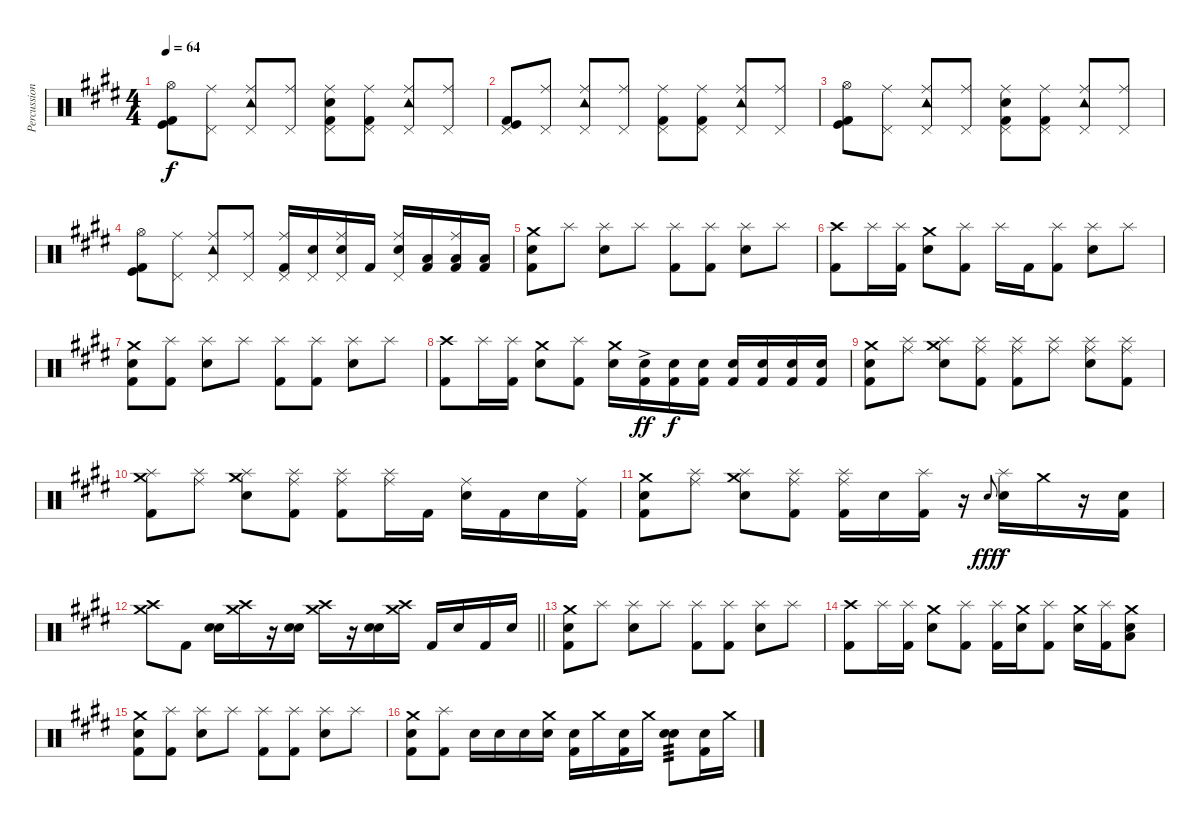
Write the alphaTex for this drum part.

\track ("Percussion" "Percussion") {instrument percussion}
\staff {score}
\articulation defaults
\ts (4 4)
\tempo 64
\clef neutral
\ks e
("Hi-Hat (open)" "Kick (hit)" "Kick (hit) 2").8{dy f} ("Pedal Hi-Hat (hit)" "Ride (middle)").8 ("Pedal Hi-Hat (hit)" "Ride (middle)" "Tambourine (hit)").8 ("Pedal Hi-Hat (hit)" "Ride (middle)").8 ("Pedal Hi-Hat (hit)" "Ride (middle)" "Kick (hit) 2" "Snare (hit) 2").8 ("Pedal Hi-Hat (hit)" "Ride (middle)" "Kick (hit) 2").8 ("Pedal Hi-Hat (hit)" "Ride (middle)" "Tambourine (hit)").8 ("Pedal Hi-Hat (hit)" "Ride (middle)").8 |
("Pedal Hi-Hat (hit)" "Kick (hit)" "Kick (hit) 2").8 ("Pedal Hi-Hat (hit)" "Ride (middle)").8 ("Pedal Hi-Hat (hit)" "Ride (middle)" "Tambourine (hit)").8 ("Pedal Hi-Hat (hit)" "Ride (middle)").8 ("Pedal Hi-Hat (hit)" "Ride (middle)" "Kick (hit) 2").8 ("Pedal Hi-Hat (hit)" "Ride (middle)" "Kick (hit) 2").8 ("Pedal Hi-Hat (hit)" "Ride (middle)" "Tambourine (hit)").8 ("Pedal Hi-Hat (hit)" "Ride (middle)").8 |
("Hi-Hat (open)" "Kick (hit)" "Kick (hit) 2").8 ("Pedal Hi-Hat (hit)" "Ride (middle)").8 ("Pedal Hi-Hat (hit)" "Ride (middle)" "Tambourine (hit)").8 ("Pedal Hi-Hat (hit)" "Ride (middle)").8 ("Pedal Hi-Hat (hit)" "Ride (middle)" "Kick (hit) 2" "Snare (hit) 2").8 ("Pedal Hi-Hat (hit)" "Ride (middle)" "Kick (hit) 2").8 ("Pedal Hi-Hat (hit)" "Ride (middle)" "Tambourine (hit)").8 ("Pedal Hi-Hat (hit)" "Ride (middle)").8 |
("Hi-Hat (open)" "Kick (hit)" "Kick (hit) 2").8 ("Pedal Hi-Hat (hit)" "Ride (middle)").8 ("Pedal Hi-Hat (hit)" "Ride (middle)" "Tambourine (hit)").8 ("Pedal Hi-Hat (hit)" "Ride (middle)").8 ("Pedal Hi-Hat (hit)" "Ride (middle)" "Kick (hit) 2").16 ("Pedal Hi-Hat (hit)" "Snare (hit) 2").16 ("Pedal Hi-Hat (hit)" "Ride (middle)" "Snare (hit) 2").16 "Kick (hit) 2".16 ("Pedal Hi-Hat (hit)" "Ride (middle)" "Snare (hit) 2").16 ("Low Floor Tom (hit)" "Kick (hit) 2").16 ("Low Floor Tom (hit)" "Ride (middle)" "Kick (hit) 2").16 ("Low Floor Tom (hit)" "Kick (hit) 2").16 |
("Crash medium (hit)" "Snare (hit) 2" "Kick (hit) 2").8 "Splash (hit)".8 ("Splash (hit)" "Snare (hit) 2").8 "Splash (hit)".8 ("Splash (hit)" "Kick (hit) 2").8 ("Splash (hit)" "Kick (hit) 2").8 ("Splash (hit)" "Snare (hit) 2").8 "Splash (hit)".8 |
("Crash high (hit)" "Kick (hit) 2").8 "Splash (hit)".16 ("Splash (hit)" "Kick (hit) 2").16 ("Crash medium (hit)" "Snare (hit) 2").8 ("Splash (hit)" "Kick (hit) 2").8 "Splash (hit)".16 "Kick (hit) 2".16 ("Splash (hit)" "Kick (hit) 2").8 ("Splash (hit)" "Snare (hit) 2").8 "Splash (hit)".8 |
("Crash medium (hit)" "Snare (hit) 2" "Kick (hit) 2").8 ("Splash (hit)" "Kick (hit) 2").8 ("Splash (hit)" "Snare (hit) 2").8 "Splash (hit)".8 ("Splash (hit)" "Kick (hit) 2").8 ("Splash (hit)" "Kick (hit) 2").8 ("Splash (hit)" "Snare (hit) 2").8 "Splash (hit)".8 |
("Crash high (hit)" "Kick (hit) 2").8 "Splash (hit)".16 ("Splash (hit)" "Kick (hit) 2").16 ("Crash medium (hit)" "Snare (hit) 2").8 ("Splash (hit)" "Kick (hit) 2").8 ("Crash medium (hit)" "Snare (hit) 2").16 ("Electric Snare (hit)" "Kick (hit) 2"{ac}).16{dy ff} ("Electric Snare (hit)" "Kick (hit) 2").16{dy f} ("Electric Snare (hit)" "Kick (hit) 2").16 ("Electric Snare (hit)" "Kick (hit) 2").16 ("Electric Snare (hit)" "Kick (hit) 2").16 ("Electric Snare (hit)" "Kick (hit) 2").16 ("Electric Snare (hit)" "Kick (hit) 2").16 |
("Crash medium (hit)" "Kick (hit) 2" "Snare (hit) 2").8 ("Ride (middle)" "Splash (hit)").8 ("Crash medium (hit)" "Splash (hit)" "Snare (hit) 2").8 ("Ride (middle)" "Splash (hit)" "Kick (hit) 2").8 ("Ride (middle)" "Splash (hit)" "Kick (hit) 2").8 ("Ride (middle)" "Splash (hit)").8 ("Ride (middle)" "Splash (hit)" "Snare (hit) 2").8 ("Ride (middle)" "Splash (hit)" "Kick (hit) 2").8 |
("Crash medium (hit)" "Splash (hit)" "Kick (hit) 2").8 ("Ride (middle)" "Splash (hit)").8 ("Crash medium (hit)" "Splash (hit)" "Snare (hit) 2").8 ("Ride (middle)" "Splash (hit)" "Kick (hit) 2").8 ("Ride (middle)" "Splash (hit)" "Kick (hit) 2").8 ("Ride (middle)" "Splash (hit)").16 "Kick (hit) 2".16 ("Ride (middle)" "Snare (hit) 2").16 "Kick (hit) 2".16 "Snare (hit) 2".16 ("Ride (middle)" "Kick (hit) 2").16 |
("Crash medium (hit)" "Kick (hit) 2" "Snare (hit) 2").8 ("Ride (middle)" "Splash (hit)").8 ("Crash medium (hit)" "Splash (hit)" "Snare (hit) 2").8 ("Ride (middle)" "Splash (hit)" "Kick (hit) 2").8 ("Ride (middle)" "Splash (hit)" "Kick (hit) 2").16 "Snare (hit) 2".16 ("Splash (hit)" "Kick (hit) 2").16 r.16 "Snare (hit) 2".8{gr onbeat dy fff} ("Splash (hit)" "Snare (hit) 2").16{dy f} "Crash medium (hit)".16 r.16 ("Snare (hit) 2" "Kick (hit) 2").16 |
\barLineRight lightlight
("Crash high (hit)" "Crash medium (hit)").8 "Kick (hit) 2".8 ("Electric Snare (hit)" "Snare (hit) 2").16 ("Crash high (hit)" "Crash medium (hit)").16 r.16 ("Electric Snare (hit)" "Snare (hit) 2").16 ("Crash high (hit)" "Crash medium (hit)").16 r.16 ("Electric Snare (hit)" "Snare (hit) 2").16 ("Crash high (hit)" "Crash medium (hit)").16 "Kick (hit) 2".16 "Snare (hit) 2".16 "Kick (hit) 2".16 "Snare (hit) 2".16 |
("Crash medium (hit)" "Snare (hit) 2" "Kick (hit) 2").8 "Splash (hit)".8 ("Splash (hit)" "Snare (hit) 2").8 "Splash (hit)".8 ("Splash (hit)" "Kick (hit) 2").8 ("Splash (hit)" "Kick (hit) 2").8 ("Splash (hit)" "Snare (hit) 2").8 "Splash (hit)".8 |
("Crash high (hit)" "Kick (hit) 2").8 "Splash (hit)".16 ("Splash (hit)" "Kick (hit) 2").16 ("Crash medium (hit)" "Snare (hit) 2").8 ("Splash (hit)" "Kick (hit) 2").8 ("Splash (hit)" "Kick (hit) 2").16 ("Crash medium (hit)" "Snare (hit) 2").16 ("Splash (hit)" "Kick (hit) 2").8 ("Crash medium (hit)" "Snare (hit) 2").16 ("Splash (hit)" "Kick (hit) 2").16 ("Crash medium (hit)" "Low Floor Tom (hit)" "Snare (hit) 2").8 |
("Crash medium (hit)" "Snare (hit) 2" "Kick (hit) 2").8 ("Splash (hit)" "Kick (hit) 2").8 ("Splash (hit)" "Snare (hit) 2").8 "Splash (hit)".8 ("Splash (hit)" "Kick (hit) 2").8 ("Splash (hit)" "Kick (hit) 2").8 ("Splash (hit)" "Snare (hit) 2").8 "Splash (hit)".8 |
("Crash medium (hit)" "Snare (hit) 2" "Kick (hit) 2").8 ("Splash (hit)" "Kick (hit) 2").8 "Snare (hit) 2".16 "Snare (hit) 2".16 "Snare (hit) 2".16 ("Crash medium (hit)" "Snare (hit) 2").16 ("Electric Snare (hit)" "Kick (hit) 2").16 "Crash medium (hit)".16 ("Electric Snare (hit)" "Kick (hit) 2").16 "Crash medium (hit)".16 ("Snare (hit) 2" "Snare (hit) 2").8{tp 3} ("Electric Snare (hit)" "Kick (hit) 2").16 "Crash medium (hit)".16
